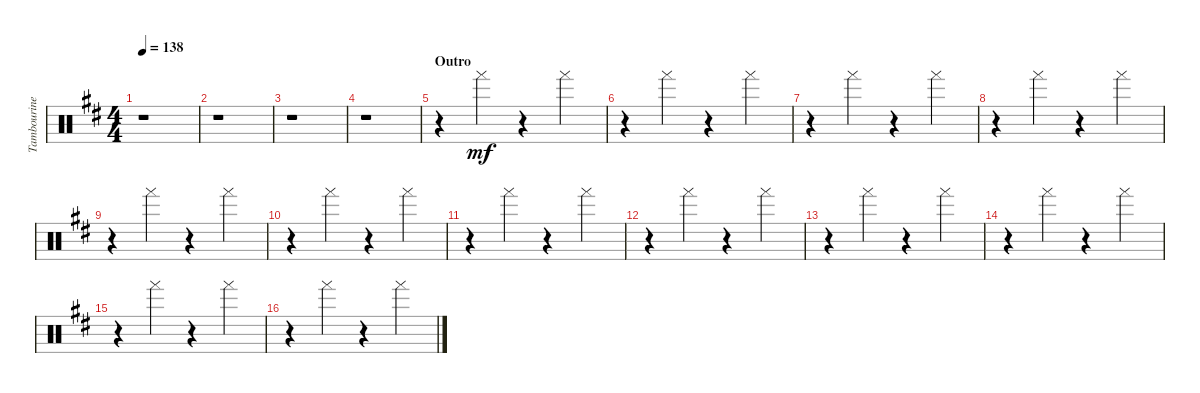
\track ("Tambourine" "Tambourine") {instrument percussion}
\staff {score}
\articulation defaults
\ts (4 4)
\tempo 138
\clef neutral
\ks d
r.1{dy mf} |
r.1 |
r.1 |
r.1 |
\section ("" "Outro")
r.4 "Tambourine (hand)".4 r.4 "Tambourine (hand)".4 |
r.4 "Tambourine (hand)".4 r.4 "Tambourine (hand)".4 |
r.4 "Tambourine (hand)".4 r.4 "Tambourine (hand)".4 |
r.4 "Tambourine (hand)".4 r.4 "Tambourine (hand)".4 |
r.4 "Tambourine (hand)".4 r.4 "Tambourine (hand)".4 |
r.4 "Tambourine (hand)".4 r.4 "Tambourine (hand)".4 |
r.4 "Tambourine (hand)".4 r.4 "Tambourine (hand)".4 |
r.4 "Tambourine (hand)".4 r.4 "Tambourine (hand)".4 |
r.4 "Tambourine (hand)".4 r.4 "Tambourine (hand)".4 |
r.4 "Tambourine (hand)".4 r.4 "Tambourine (hand)".4 |
r.4 "Tambourine (hand)".4 r.4 "Tambourine (hand)".4 |
r.4 "Tambourine (hand)".4 r.4 "Tambourine (hand)".4
